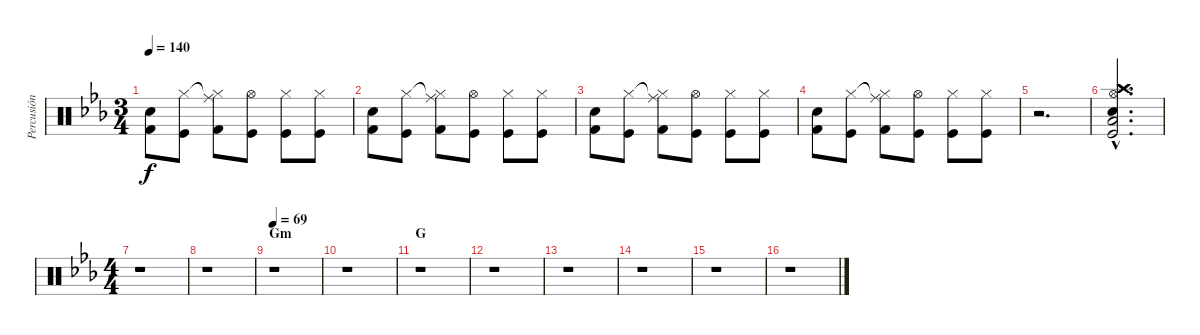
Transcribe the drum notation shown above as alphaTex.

\track ("Percusión" "Percusión") {instrument percussion}
\staff {score}
\articulation defaults
\ts (3 4)
\tempo 140
\clef neutral
\ks cminor
("Electric Snare (hit)" "Kick (hit) 2").8{dy f} ("Hi-Hat (closed)" "Kick (hit)").8 ("Ride (middle)"{t} "Hi-Hat (closed)" "Kick (hit) 2").8 ("Hi-Hat (open)" "Kick (hit)").8 ("Hi-Hat (closed)" "Kick (hit)").8 ("Hi-Hat (closed)" "Kick (hit)").8 |
("Electric Snare (hit)" "Kick (hit) 2").8 ("Hi-Hat (closed)" "Kick (hit)").8 ("Ride (middle)"{t} "Hi-Hat (closed)" "Kick (hit) 2").8 ("Hi-Hat (open)" "Kick (hit)").8 ("Hi-Hat (closed)" "Kick (hit)").8 ("Hi-Hat (closed)" "Kick (hit)").8 |
("Electric Snare (hit)" "Kick (hit) 2").8 ("Hi-Hat (closed)" "Kick (hit)").8 ("Ride (middle)"{t} "Hi-Hat (closed)" "Kick (hit) 2").8 ("Hi-Hat (open)" "Kick (hit)").8 ("Hi-Hat (closed)" "Kick (hit)").8 ("Hi-Hat (closed)" "Kick (hit)").8 |
("Electric Snare (hit)" "Kick (hit) 2").8 ("Hi-Hat (closed)" "Kick (hit)").8 ("Ride (middle)"{t} "Hi-Hat (closed)" "Kick (hit) 2").8 ("Hi-Hat (open)" "Kick (hit)").8 ("Hi-Hat (closed)" "Kick (hit)").8 ("Hi-Hat (closed)" "Kick (hit)").8 |
r.2{d} |
("Metronome (bell)"{hac} "Crash high (hit)"{hac} "Crash high (hit)"{hac} "Low Tom (hit)"{hac} "Hi-Hat (open)"{hac} "Kick (hit)"{hac}).2{d} |
\ts (4 4)
r.1{balance 8} |
r.1 |
\section ("" "Gm")
\tempo 69
r.1 |
r.1 |
\section ("" "G")
r.1 |
r.1 |
r.1 |
r.1 |
r.1 |
r.1
